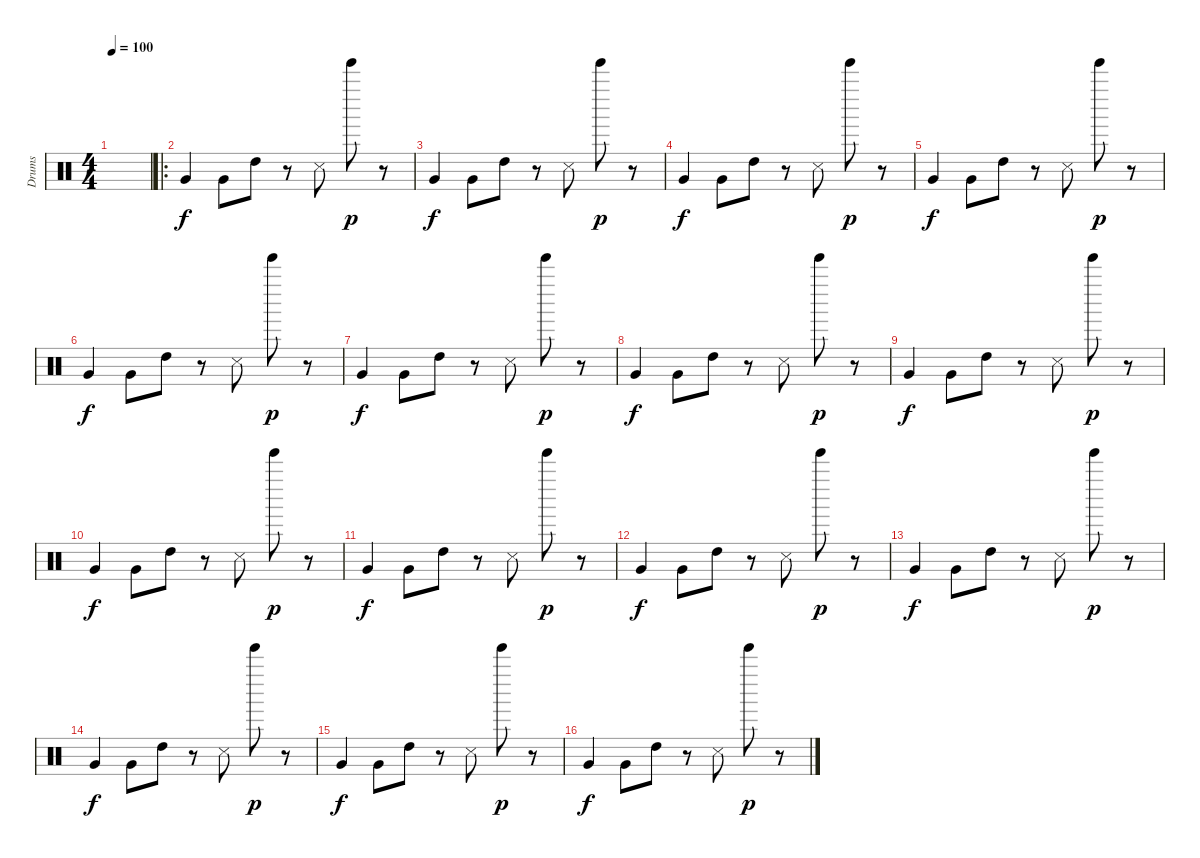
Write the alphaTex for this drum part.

\track ("Drums" "Drums") {instrument percussion}
\staff {score}
\articulation defaults
\ts (4 4)
\tempo 100
\clef neutral
\ks c
|
\ro "Very Low Tom (hit)".4 "Very Low Tom (hit)".8 "High Tom (hit)".8
r.8 "Metronome (hit)".8 "Tinkle Bell (hit)".8{dy p} r.8 |
"Very Low Tom (hit)".4{dy f} "Very Low Tom (hit)".8 "High Tom (hit)".8 r.8 "Metronome (hit)".8 "Tinkle Bell (hit)".8{dy p} r.8 |
"Very Low Tom (hit)".4{dy f} "Very Low Tom (hit)".8 "High Tom (hit)".8 r.8 "Metronome (hit)".8 "Tinkle Bell (hit)".8{dy p} r.8 |
"Very Low Tom (hit)".4{dy f} "Very Low Tom (hit)".8 "High Tom (hit)".8 r.8 "Metronome (hit)".8 "Tinkle Bell (hit)".8{dy p} r.8 |
"Very Low Tom (hit)".4{dy f} "Very Low Tom (hit)".8 "High Tom (hit)".8 r.8 "Metronome (hit)".8 "Tinkle Bell (hit)".8{dy p} r.8 |
"Very Low Tom (hit)".4{dy f} "Very Low Tom (hit)".8 "High Tom (hit)".8 r.8 "Metronome (hit)".8 "Tinkle Bell (hit)".8{dy p} r.8 |
"Very Low Tom (hit)".4{dy f} "Very Low Tom (hit)".8 "High Tom (hit)".8 r.8 "Metronome (hit)".8 "Tinkle Bell (hit)".8{dy p} r.8 |
"Very Low Tom (hit)".4{dy f} "Very Low Tom (hit)".8 "High Tom (hit)".8 r.8 "Metronome (hit)".8 "Tinkle Bell (hit)".8{dy p} r.8 |
"Very Low Tom (hit)".4{dy f} "Very Low Tom (hit)".8 "High Tom (hit)".8 r.8 "Metronome (hit)".8 "Tinkle Bell (hit)".8{dy p} r.8 |
"Very Low Tom (hit)".4{dy f} "Very Low Tom (hit)".8 "High Tom (hit)".8 r.8 "Metronome (hit)".8 "Tinkle Bell (hit)".8{dy p} r.8 |
"Very Low Tom (hit)".4{dy f} "Very Low Tom (hit)".8 "High Tom (hit)".8 r.8 "Metronome (hit)".8 "Tinkle Bell (hit)".8{dy p} r.8 |
"Very Low Tom (hit)".4{dy f} "Very Low Tom (hit)".8 "High Tom (hit)".8 r.8 "Metronome (hit)".8 "Tinkle Bell (hit)".8{dy p} r.8 |
"Very Low Tom (hit)".4{dy f} "Very Low Tom (hit)".8 "High Tom (hit)".8 r.8 "Metronome (hit)".8 "Tinkle Bell (hit)".8{dy p} r.8 |
"Very Low Tom (hit)".4{dy f} "Very Low Tom (hit)".8 "High Tom (hit)".8 r.8 "Metronome (hit)".8 "Tinkle Bell (hit)".8{dy p} r.8 |
"Very Low Tom (hit)".4{dy f} "Very Low Tom (hit)".8 "High Tom (hit)".8 r.8 "Metronome (hit)".8 "Tinkle Bell (hit)".8{dy p} r.8
